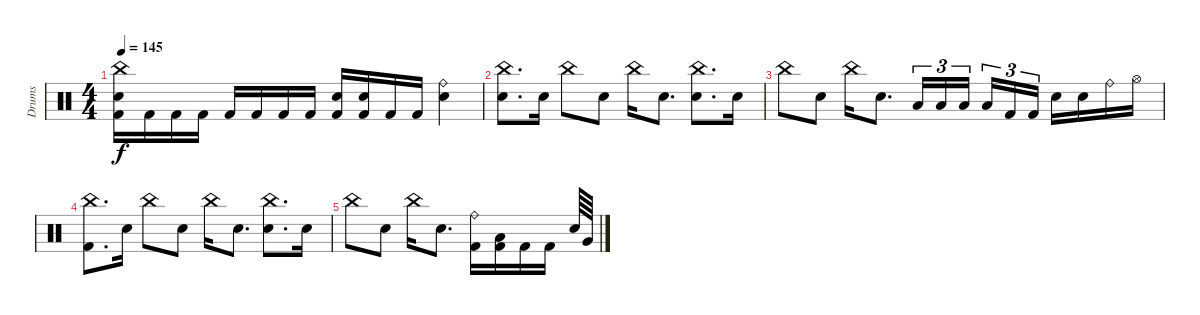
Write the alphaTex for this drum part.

\track ("Drums" "Drums") {instrument percussion bank 150}
\staff {score}
\articulation defaults
\ts (4 4)
\tempo 145
\clef neutral
\ks c
("China (hit)" "Electric Snare (hit)" "Kick (hit) 2").16{dy f} "Kick (hit) 2".16 "Kick (hit) 2".16 "Kick (hit) 2".16 "Kick (hit) 2".16 "Kick (hit) 2".16 "Kick (hit) 2".16 "Kick (hit) 2".16 ("Electric Snare (hit)" "Kick (hit) 2").16 ("Electric Snare (hit)" "Kick (hit) 2").16 "Kick (hit) 2".16 "Kick (hit) 2".16 ("Ride (bell)" "Electric Snare (hit)").4 |
("China (hit)" "Electric Snare (hit)").8{d} "Electric Snare (hit)".16 "China (hit)".8 "Electric Snare (hit)".8 "China (hit)".16 "Electric Snare (hit)".8{d} ("China (hit)" "Electric Snare (hit)").8{d} "Electric Snare (hit)".16 |
"China (hit)".8 "Electric Snare (hit)".8 "China (hit)".16 "Electric Snare (hit)".8{d} "Low Tom (hit)".16{tu (3 2)} "Low Tom (hit)".16{tu (3 2)} "Low Tom (hit)".16{tu (3 2) beam splitsecondary} "Low Tom (hit)".16{tu (3 2)} "Kick (hit) 2".16{tu (3 2)} "Kick (hit) 2".16{tu (3 2)} "Electric Snare (hit)".16 "Electric Snare (hit)".16 "Ride (bell)".16 "Hi-Hat (open)".16 |
("China (hit)" "Kick (hit) 2").8{d} "Electric Snare (hit)".16 "China (hit)".8 "Electric Snare (hit)".8 "China (hit)".16 "Electric Snare (hit)".8{d} ("China (hit)" "Electric Snare (hit)").8{d} "Electric Snare (hit)".16 |
"China (hit)".8 "Electric Snare (hit)".8 "China (hit)".16 "Electric Snare (hit)".8{d} ("Ride (bell)" "Kick (hit) 2").16 ("Low Tom (hit)" "Kick (hit) 2").16 "Kick (hit) 2".16 "Kick (hit) 2".16 "Electric Snare (hit)".64 "Very Low Tom (hit)".64
